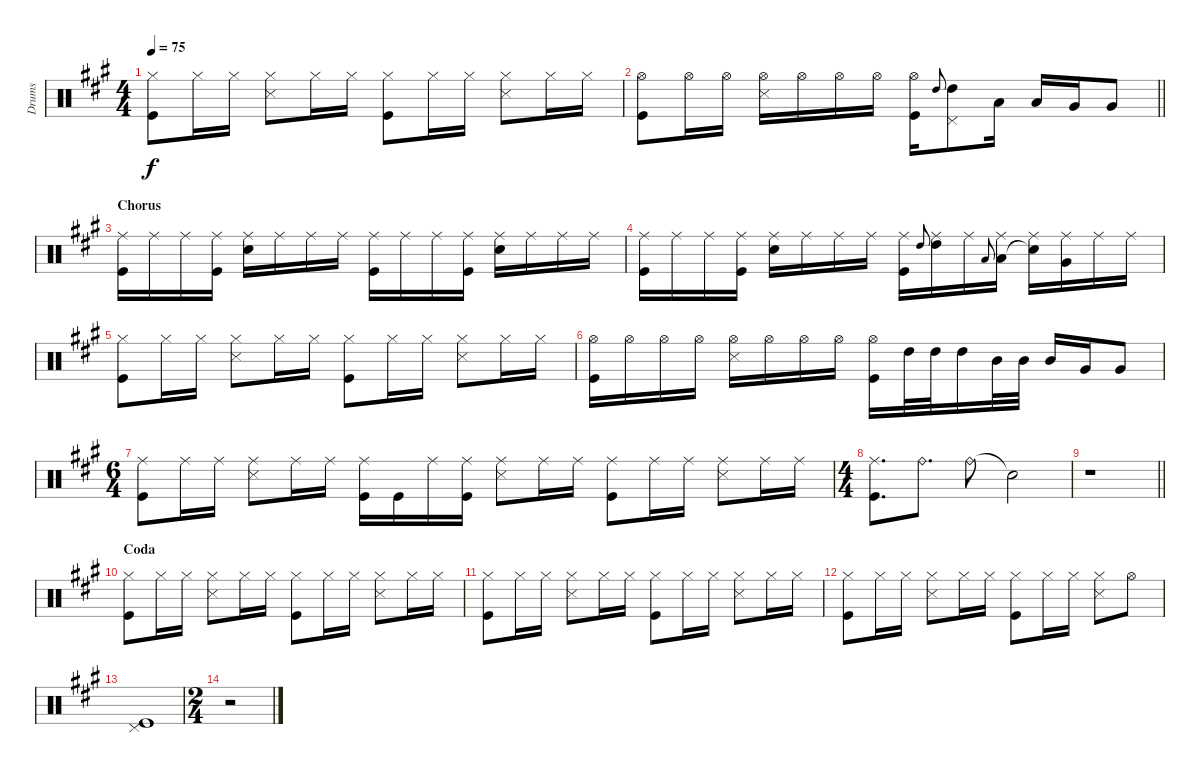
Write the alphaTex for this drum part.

\track ("Drums" "Drums") {instrument percussion}
\staff {score}
\articulation defaults
\ts (4 4)
\tempo 75
\clef neutral
\ks f#minor
("Hi-Hat (closed)" "Kick (hit)").8{dy f} "Hi-Hat (closed)".16 "Hi-Hat (closed)".16 ("Hi-Hat (closed)" "Snare (side stick) 3").8 "Hi-Hat (closed)".16 "Hi-Hat (closed)".16 ("Hi-Hat (closed)" "Kick (hit)").8 "Hi-Hat (closed)".16 "Hi-Hat (closed)".16 ("Hi-Hat (closed)" "Snare (side stick) 3").8 "Hi-Hat (closed)".16 "Hi-Hat (closed)".16 |
\barLineRight lightlight
("Hi-Hat (open)" "Kick (hit)").8 "Hi-Hat (open)".16 "Hi-Hat (open)".16 ("Hi-Hat (open)" "Snare (side stick) 3").16 "Hi-Hat (open)".16 "Hi-Hat (open)".16 "Hi-Hat (open)".16 ("Hi-Hat (open)" "Kick (hit)").16 "High Tom (hit)".8{gr onbeat} ("High Tom (hit)" "Pedal Hi-Hat (hit)").8 "Low Tom (hit)".16 "Low Tom (hit)".16 "Very Low Tom (hit)".16 "Very Low Tom (hit)".8 |
\section ("" "Chorus")
("Ride (middle)" "Kick (hit)").16 "Ride (middle)".16 "Ride (middle)".16 ("Ride (middle)" "Kick (hit)").16 ("Ride (middle)" "Electric Snare (hit)").16 "Ride (middle)".16 "Ride (middle)".16 "Ride (middle)".16 ("Ride (middle)" "Kick (hit)").16 "Ride (middle)".16 "Ride (middle)".16 ("Ride (middle)" "Kick (hit)").16 ("Ride (middle)" "Electric Snare (hit)").16 "Ride (middle)".16 "Ride (middle)".16 "Ride (middle)".16 |
("Ride (middle)" "Kick (hit)").16 "Ride (middle)".16 "Ride (middle)".16 ("Ride (middle)" "Kick (hit)").16 ("Ride (middle)" "Electric Snare (hit)").16 "Ride (middle)".16 "Ride (middle)".16 "Ride (middle)".16 ("Ride (middle)" "Kick (hit)").16 "High Tom (hit)".8{gr onbeat} ("Ride (middle)" "High Tom (hit)").16 "Ride (middle)".16 "Low Tom (hit)".8{gr onbeat} ("Ride (middle)" "Low Tom (hit)").16 ("Ride (middle)" "Snare (hit)"{t}).16 ("Ride (middle)" "Very Low Tom (hit)").16 "Ride (middle)".16 "Ride (middle)".16 |
("Hi-Hat (closed)" "Kick (hit)").8 "Hi-Hat (closed)".16 "Hi-Hat (closed)".16 ("Hi-Hat (closed)" "Snare (side stick) 3").8 "Hi-Hat (closed)".16 "Hi-Hat (closed)".16 ("Hi-Hat (closed)" "Kick (hit)").8 "Hi-Hat (closed)".16 "Hi-Hat (closed)".16 ("Hi-Hat (closed)" "Snare (side stick) 3").8 "Hi-Hat (closed)".16 "Hi-Hat (closed)".16 |
("Hi-Hat (open)" "Kick (hit)").16 "Hi-Hat (open)".16 "Hi-Hat (open)".16 "Hi-Hat (open)".16 ("Hi-Hat (open)" "Snare (side stick) 3").16 "Hi-Hat (open)".16 "Hi-Hat (open)".16 "Hi-Hat (open)".16 ("Hi-Hat (open)" "Kick (hit)").16 "High Tom (hit)".32 "High Tom (hit)".32 "High Tom (hit)".16 "Mid Tom (hit)".32 "Mid Tom (hit)".32 "Mid Tom (hit)".16 "Very Low Tom (hit)".16 "Very Low Tom (hit)".8 |
\ts (6 4)
("Ride (middle)" "Kick (hit)").8 "Ride (middle)".16 "Ride (middle)".16 ("Ride (middle)" "Snare (side stick) 3").8 "Ride (middle)".16 "Ride (middle)".16 ("Ride (middle)" "Kick (hit)").16 "Kick (hit)".16 "Ride (middle)".16 ("Ride (middle)" "Kick (hit)").16 ("Ride (middle)" "Snare (side stick) 3").8 "Ride (middle)".16 "Ride (middle)".16 ("Ride (middle)" "Kick (hit)").8 "Ride (middle)".16 "Ride (middle)".16 ("Ride (middle)" "Snare (side stick) 3").8 "Ride (middle)".16 "Ride (middle)".16 |
\ts (4 4)
("Ride (middle)" "Kick (hit)").8{d} "Ride (bell)".8{d} "Ride (bell)".8 "Snare (hit)"{t}.2 |
\barLineRight lightlight
r.1 |
\section ("" "Coda")
("Hi-Hat (closed)" "Kick (hit)").8 "Hi-Hat (closed)".16 "Hi-Hat (closed)".16 ("Hi-Hat (closed)" "Snare (side stick) 3").8 "Hi-Hat (closed)".16 "Hi-Hat (closed)".16 ("Hi-Hat (closed)" "Kick (hit)").8 "Hi-Hat (closed)".16 "Hi-Hat (closed)".16 ("Hi-Hat (closed)" "Snare (side stick) 3").8 "Hi-Hat (closed)".16 "Hi-Hat (closed)".16 |
("Hi-Hat (closed)" "Kick (hit)").8 "Hi-Hat (closed)".16 "Hi-Hat (closed)".16 ("Hi-Hat (closed)" "Snare (side stick) 3").8 "Hi-Hat (closed)".16 "Hi-Hat (closed)".16 ("Hi-Hat (closed)" "Kick (hit)").8 "Hi-Hat (closed)".16 "Hi-Hat (closed)".16 ("Hi-Hat (closed)" "Snare (side stick) 3").8 "Hi-Hat (closed)".16 "Hi-Hat (closed)".16 |
("Hi-Hat (closed)" "Kick (hit)").8 "Hi-Hat (closed)".16 "Hi-Hat (closed)".16 ("Hi-Hat (closed)" "Snare (side stick) 3").8 "Hi-Hat (closed)".16 "Hi-Hat (closed)".16 ("Hi-Hat (closed)" "Kick (hit)").8 "Hi-Hat (closed)".16 "Hi-Hat (closed)".16 ("Hi-Hat (closed)" "Snare (side stick) 3").8 "Hi-Hat (open)".8 |
("Pedal Hi-Hat (hit)" "Kick (hit)").1 |
\ts (2 4)
r.2
